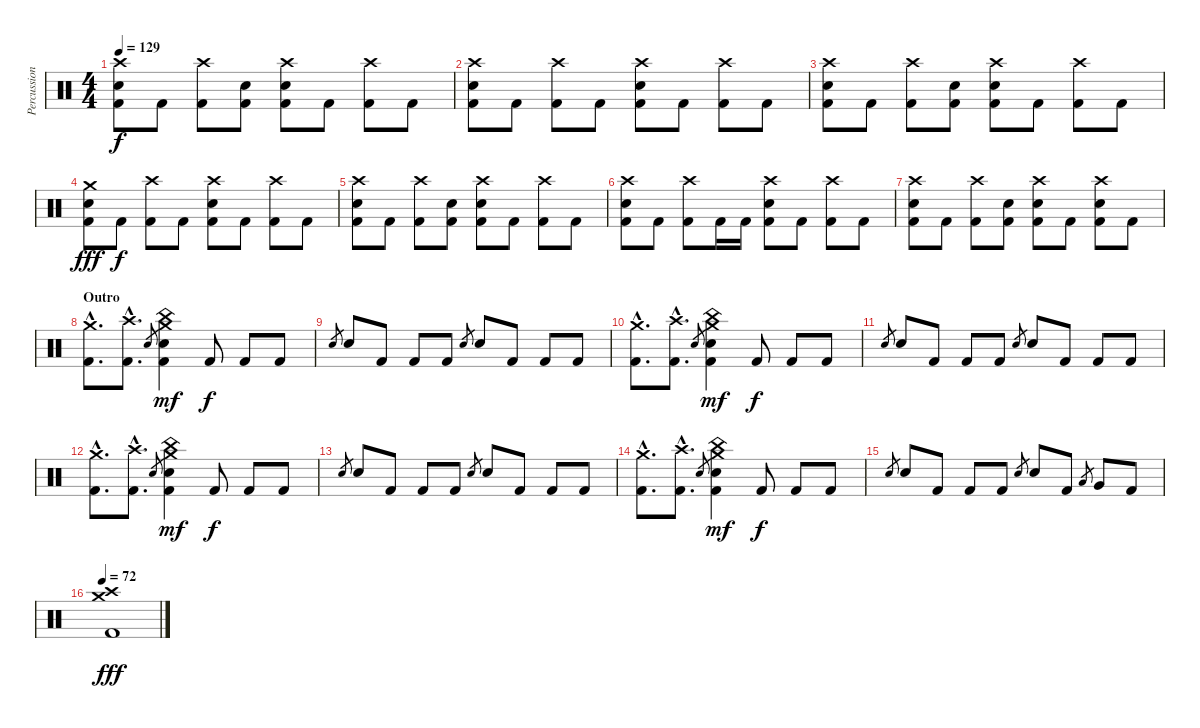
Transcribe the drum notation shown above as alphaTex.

\track ("Percussions" "Percussion") {instrument percussion}
\staff {score}
\articulation defaults
\ts (4 4)
\tempo 129
\clef neutral
\ks c
("Crash high (hit)" "Snare (hit) 2" "Kick (hit) 2").8{dy f} "Kick (hit) 2".8 ("Crash high (hit)" "Kick (hit) 2").8 ("Snare (hit) 2" "Kick (hit) 2").8 ("Crash high (hit)" "Snare (hit) 2" "Kick (hit) 2").8 "Kick (hit) 2".8 ("Crash high (hit)" "Kick (hit) 2").8 "Kick (hit) 2".8 |
("Crash high (hit)" "Snare (hit) 2" "Kick (hit) 2").8 "Kick (hit) 2".8 ("Crash high (hit)" "Kick (hit) 2").8 "Kick (hit) 2".8 ("Crash high (hit)" "Snare (hit) 2" "Kick (hit) 2").8 "Kick (hit) 2".8 ("Crash high (hit)" "Kick (hit) 2").8 "Kick (hit) 2".8 |
("Crash high (hit)" "Snare (hit) 2" "Kick (hit) 2").8 "Kick (hit) 2".8 ("Crash high (hit)" "Kick (hit) 2").8 ("Snare (hit) 2" "Kick (hit) 2").8 ("Crash high (hit)" "Snare (hit) 2" "Kick (hit) 2").8 "Kick (hit) 2".8 ("Crash high (hit)" "Kick (hit) 2").8 "Kick (hit) 2".8 |
("Crash medium (hit)" "Snare (hit) 2" "Kick (hit) 2").8{dy fff} "Kick (hit) 2".8{dy f} ("Crash high (hit)" "Kick (hit) 2").8 "Kick (hit) 2".8 ("Crash high (hit)" "Snare (hit) 2" "Kick (hit) 2").8 "Kick (hit) 2".8 ("Crash high (hit)" "Kick (hit) 2").8 "Kick (hit) 2".8 |
("Crash high (hit)" "Snare (hit) 2" "Kick (hit) 2").8 "Kick (hit) 2".8 ("Crash high (hit)" "Kick (hit) 2").8 ("Snare (hit) 2" "Kick (hit) 2").8 ("Crash high (hit)" "Snare (hit) 2" "Kick (hit) 2").8 "Kick (hit) 2".8 ("Crash high (hit)" "Kick (hit) 2").8 "Kick (hit) 2".8 |
("Crash high (hit)" "Snare (hit) 2" "Kick (hit) 2").8 "Kick (hit) 2".8 ("Crash high (hit)" "Kick (hit) 2").8 "Kick (hit) 2".16 "Kick (hit) 2".16 ("Crash high (hit)" "Snare (hit) 2" "Kick (hit) 2").8 "Kick (hit) 2".8 ("Crash high (hit)" "Kick (hit) 2").8 "Kick (hit) 2".8 |
("Crash high (hit)" "Snare (hit) 2" "Kick (hit) 2").8 "Kick (hit) 2".8 ("Crash high (hit)" "Kick (hit) 2").8 ("Snare (hit) 2" "Kick (hit) 2").8 ("Crash high (hit)" "Snare (hit) 2" "Kick (hit) 2").8 "Kick (hit) 2".8 ("Crash high (hit)" "Snare (hit) 2" "Kick (hit) 2").8 "Kick (hit) 2".8 |
\section ("" "Outro")
("Crash medium (hit)"{hac} "Kick (hit) 2"{hac}).8{d} ("Crash high (hit)"{hac} "Kick (hit) 2"{hac}).8{d} "Snare (hit) 2".8{gr} ("China (hit)" "Crash medium (hit)" "Snare (hit) 2" "Kick (hit) 2").4{dy mf} "Kick (hit) 2".8{dy f} "Kick (hit) 2".8 "Kick (hit) 2".8 |
"Snare (hit) 2".8{gr} "Snare (hit) 2".8 "Kick (hit) 2".8 "Kick (hit) 2".8 "Kick (hit) 2".8 "Snare (hit) 2".8{gr} "Snare (hit) 2".8 "Kick (hit) 2".8 "Kick (hit) 2".8 "Kick (hit) 2".8 |
("Crash medium (hit)"{hac} "Kick (hit) 2"{hac}).8{d} ("Crash high (hit)"{hac} "Kick (hit) 2"{hac}).8{d} "Snare (hit) 2".8{gr} ("China (hit)" "Crash medium (hit)" "Snare (hit) 2" "Kick (hit) 2").4{dy mf} "Kick (hit) 2".8{dy f} "Kick (hit) 2".8 "Kick (hit) 2".8 |
"Snare (hit) 2".8{gr} "Snare (hit) 2".8 "Kick (hit) 2".8 "Kick (hit) 2".8 "Kick (hit) 2".8 "Snare (hit) 2".8{gr} "Snare (hit) 2".8 "Kick (hit) 2".8 "Kick (hit) 2".8 "Kick (hit) 2".8 |
("Crash medium (hit)"{hac} "Kick (hit) 2"{hac}).8{d} ("Crash high (hit)"{hac} "Kick (hit) 2"{hac}).8{d} "Snare (hit) 2".8{gr} ("China (hit)" "Crash medium (hit)" "Snare (hit) 2" "Kick (hit) 2").4{dy mf} "Kick (hit) 2".8{dy f} "Kick (hit) 2".8 "Kick (hit) 2".8 |
"Snare (hit) 2".8{gr} "Snare (hit) 2".8 "Kick (hit) 2".8 "Kick (hit) 2".8 "Kick (hit) 2".8 "Snare (hit) 2".8{gr} "Snare (hit) 2".8 "Kick (hit) 2".8 "Kick (hit) 2".8 "Kick (hit) 2".8 |
("Crash medium (hit)"{hac} "Kick (hit) 2"{hac}).8{d} ("Crash high (hit)"{hac} "Kick (hit) 2"{hac}).8{d} "Snare (hit) 2".8{gr} ("China (hit)" "Crash medium (hit)" "Snare (hit) 2" "Kick (hit) 2").4{dy mf} "Kick (hit) 2".8{dy f} "Kick (hit) 2".8 "Kick (hit) 2".8 |
"Snare (hit) 2".8{gr} "Snare (hit) 2".8 "Kick (hit) 2".8 "Kick (hit) 2".8 "Kick (hit) 2".8 "Snare (hit) 2".8{gr} "Snare (hit) 2".8 "Kick (hit) 2".8 "Low Tom (hit)".8{gr} "Very Low Tom (hit)".8 "Kick (hit) 2".8 |
\tempo 72
("Crash medium (hit)" "Crash high (hit)" "Kick (hit) 2").1{dy fff}
